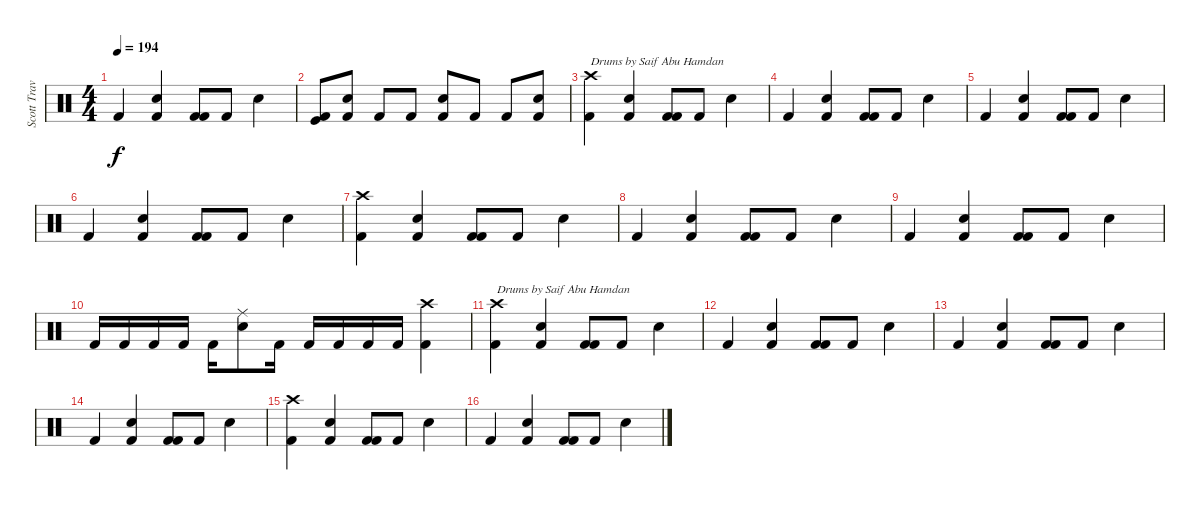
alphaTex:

\track ("Scott Travis" "Scott Trav") {instrument percussion}
\staff {score}
\articulation defaults
\ts (4 4)
\tempo 194
\clef neutral
\ks c "Kick (hit) 2".4{dy f}
("Kick (hit) 2" "Snare (hit) 2").4 ("Kick (hit) 2" "Kick (hit) 2").8 "Kick (hit) 2".8 "Snare (hit) 2".4 |
("Kick (hit) 2" "Kick (hit)").8 ("Kick (hit) 2" "Snare (hit) 2").8 "Kick (hit) 2".8 "Kick (hit) 2".8 ("Kick (hit) 2" "Snare (hit) 2").8 "Kick (hit) 2".8 "Kick (hit) 2".8 ("Kick (hit) 2" "Snare (hit) 2").8 |
("Kick (hit) 2" "Crash high (hit)").4{txt "Drums by Saif Abu Hamdan"} ("Kick (hit) 2" "Snare (hit) 2").4 ("Kick (hit) 2" "Kick (hit) 2").8 "Kick (hit) 2".8 "Snare (hit) 2".4 |
"Kick (hit) 2".4 ("Kick (hit) 2" "Snare (hit) 2").4 ("Kick (hit) 2" "Kick (hit) 2").8 "Kick (hit) 2".8 "Snare (hit) 2".4 |
"Kick (hit) 2".4 ("Kick (hit) 2" "Snare (hit) 2").4 ("Kick (hit) 2" "Kick (hit) 2").8 "Kick (hit) 2".8 "Snare (hit) 2".4 |
"Kick (hit) 2".4 ("Kick (hit) 2" "Snare (hit) 2").4 ("Kick (hit) 2" "Kick (hit) 2").8 "Kick (hit) 2".8 "Snare (hit) 2".4 |
("Kick (hit) 2" "Crash high (hit)").4 ("Kick (hit) 2" "Snare (hit) 2").4 ("Kick (hit) 2" "Kick (hit) 2").8 "Kick (hit) 2".8 "Snare (hit) 2".4 |
"Kick (hit) 2".4 ("Kick (hit) 2" "Snare (hit) 2").4 ("Kick (hit) 2" "Kick (hit) 2").8 "Kick (hit) 2".8 "Snare (hit) 2".4 |
"Kick (hit) 2".4 ("Kick (hit) 2" "Snare (hit) 2").4 ("Kick (hit) 2" "Kick (hit) 2").8 "Kick (hit) 2".8 "Snare (hit) 2".4 |
"Kick (hit) 2".16 "Kick (hit) 2".16 "Kick (hit) 2".16 "Kick (hit) 2".16 "Kick (hit) 2".16 ("Ride (middle)" "Snare (hit) 2").8 "Kick (hit) 2".16 "Kick (hit) 2".16 "Kick (hit) 2".16 "Kick (hit) 2".16 "Kick (hit) 2".16 ("Crash high (hit)" "Kick (hit) 2").4 |
("Kick (hit) 2" "Crash high (hit)").4{txt "Drums by Saif Abu Hamdan"} ("Kick (hit) 2" "Snare (hit) 2").4 ("Kick (hit) 2" "Kick (hit) 2").8 "Kick (hit) 2".8 "Snare (hit) 2".4 |
"Kick (hit) 2".4 ("Kick (hit) 2" "Snare (hit) 2").4 ("Kick (hit) 2" "Kick (hit) 2").8 "Kick (hit) 2".8 "Snare (hit) 2".4 |
"Kick (hit) 2".4 ("Kick (hit) 2" "Snare (hit) 2").4 ("Kick (hit) 2" "Kick (hit) 2").8 "Kick (hit) 2".8 "Snare (hit) 2".4 |
"Kick (hit) 2".4 ("Kick (hit) 2" "Snare (hit) 2").4 ("Kick (hit) 2" "Kick (hit) 2").8 "Kick (hit) 2".8 "Snare (hit) 2".4 |
("Kick (hit) 2" "Crash high (hit)").4 ("Kick (hit) 2" "Snare (hit) 2").4 ("Kick (hit) 2" "Kick (hit) 2").8 "Kick (hit) 2".8 "Snare (hit) 2".4 |
"Kick (hit) 2".4 ("Kick (hit) 2" "Snare (hit) 2").4 ("Kick (hit) 2" "Kick (hit) 2").8 "Kick (hit) 2".8 "Snare (hit) 2".4
